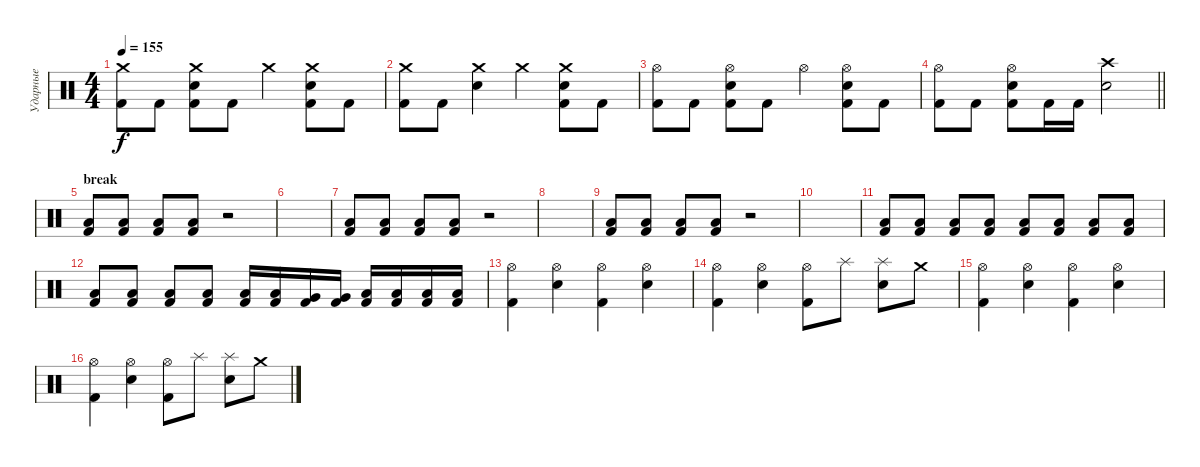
\track ("Ударные" "Ударные") {instrument percussion}
\staff {score}
\articulation defaults
\ts (4 4)
\tempo 155
\clef neutral
\ks c
("Crash medium (hit)" "Kick (hit) 2").8{dy f} "Kick (hit) 2".8 ("Crash medium (hit)" "Electric Snare (hit)" "Kick (hit) 2").8 "Kick (hit) 2".8 "Crash medium (hit)".4 ("Crash medium (hit)" "Electric Snare (hit)" "Kick (hit) 2").8 "Kick (hit) 2".8 |
("Crash medium (hit)" "Kick (hit) 2").8 "Kick (hit) 2".8 ("Crash medium (hit)" "Electric Snare (hit)").4 "Crash medium (hit)".4 ("Crash medium (hit)" "Electric Snare (hit)" "Kick (hit) 2").8 "Kick (hit) 2".8 |
("Hi-Hat (open)" "Kick (hit) 2").8 "Kick (hit) 2".8 ("Hi-Hat (open)" "Electric Snare (hit)" "Kick (hit) 2").8 "Kick (hit) 2".8 "Hi-Hat (open)".4 ("Hi-Hat (open)" "Electric Snare (hit)" "Kick (hit) 2").8 "Kick (hit) 2".8 |
\barLineRight lightlight
("Hi-Hat (open)" "Kick (hit) 2").8 "Kick (hit) 2".8 ("Hi-Hat (open)" "Electric Snare (hit)" "Kick (hit) 2").8 "Kick (hit) 2".16 "Kick (hit) 2".16 ("Crash high (hit)" "Electric Snare (hit)").2 |
\section ("" "break")
("Low Floor Tom (hit)" "Kick (hit) 2").8 ("Low Floor Tom (hit)" "Kick (hit) 2").8 ("Low Floor Tom (hit)" "Kick (hit) 2").8 ("Low Floor Tom (hit)" "Kick (hit) 2").8 r.2 |
|
("Low Floor Tom (hit)" "Kick (hit) 2").8 ("Low Floor Tom (hit)" "Kick (hit) 2").8 ("Low Floor Tom (hit)" "Kick (hit) 2").8 ("Low Floor Tom (hit)" "Kick (hit) 2").8 r.2 |
|
("Low Floor Tom (hit)" "Kick (hit) 2").8 ("Low Floor Tom (hit)" "Kick (hit) 2").8 ("Low Floor Tom (hit)" "Kick (hit) 2").8 ("Low Floor Tom (hit)" "Kick (hit) 2").8 r.2 |
|
("Low Floor Tom (hit)" "Kick (hit) 2").8 ("Low Floor Tom (hit)" "Kick (hit) 2").8 ("Low Floor Tom (hit)" "Kick (hit) 2").8 ("Low Floor Tom (hit)" "Kick (hit) 2").8 ("Low Floor Tom (hit)" "Kick (hit) 2").8 ("Low Floor Tom (hit)" "Kick (hit) 2").8 ("Low Floor Tom (hit)" "Kick (hit) 2").8 ("Low Floor Tom (hit)" "Kick (hit) 2").8 |
("Low Floor Tom (hit)" "Kick (hit) 2").8 ("Low Floor Tom (hit)" "Kick (hit) 2").8 ("Low Floor Tom (hit)" "Kick (hit) 2").8 ("Low Floor Tom (hit)" "Kick (hit) 2").8 ("Low Tom (hit)" "Kick (hit) 2").16 ("Low Tom (hit)" "Kick (hit) 2").16 ("Very Low Tom (hit)" "Kick (hit) 2").16 ("Very Low Tom (hit)" "Kick (hit) 2").16 ("Low Floor Tom (hit)" "Kick (hit) 2").16 ("Low Floor Tom (hit)" "Kick (hit) 2").16 ("Low Floor Tom (hit)" "Kick (hit) 2").16 ("Low Floor Tom (hit)" "Kick (hit) 2").16 |
("Hi-Hat (open)" "Kick (hit) 2").4 ("Hi-Hat (open)" "Electric Snare (hit)").4 ("Hi-Hat (open)" "Kick (hit) 2").4 ("Hi-Hat (open)" "Electric Snare (hit)").4 |
("Hi-Hat (open)" "Kick (hit) 2").4 ("Hi-Hat (open)" "Electric Snare (hit)").4 ("Hi-Hat (open)" "Kick (hit) 2").8 "Splash (hit)".8 ("Splash (hit)" "Electric Snare (hit)").8 "Crash medium (hit)".8 |
("Hi-Hat (open)" "Kick (hit) 2").4 ("Hi-Hat (open)" "Electric Snare (hit)").4 ("Hi-Hat (open)" "Kick (hit) 2").4 ("Hi-Hat (open)" "Electric Snare (hit)").4 |
("Hi-Hat (open)" "Kick (hit) 2").4 ("Hi-Hat (open)" "Electric Snare (hit)").4 ("Hi-Hat (open)" "Kick (hit) 2").8 "Splash (hit)".8 ("Splash (hit)" "Electric Snare (hit)").8 "Crash medium (hit)".8
